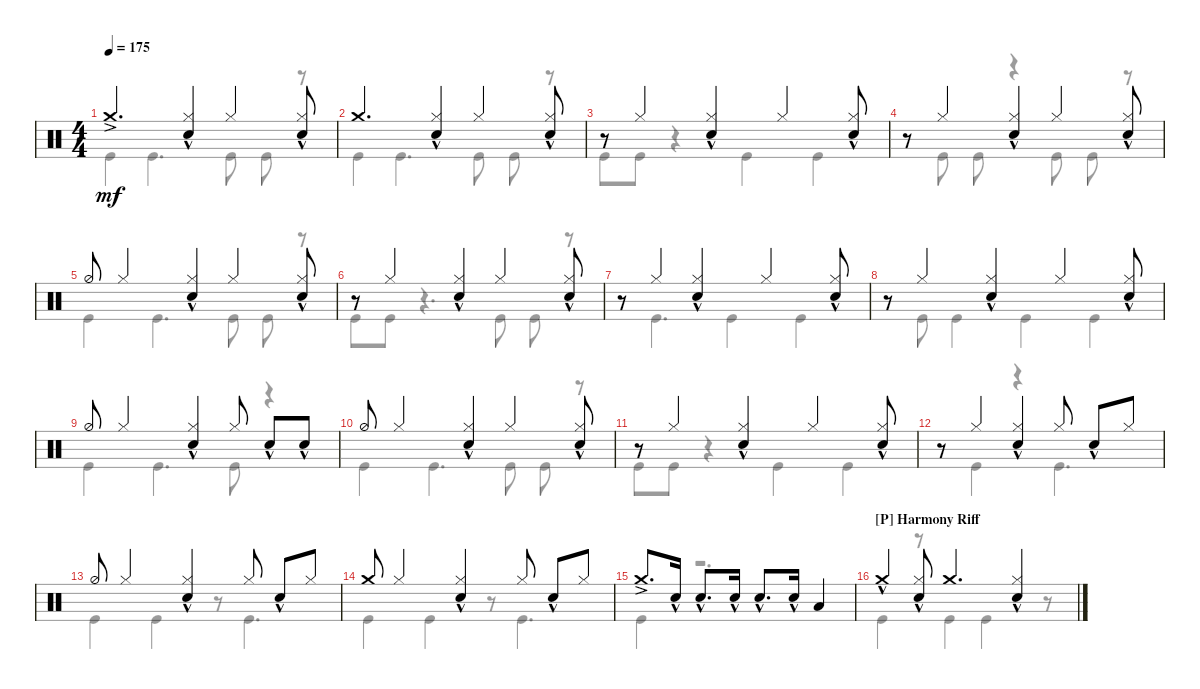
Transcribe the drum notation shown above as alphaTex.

\defaultSystemsLayout 4
\bracketExtendMode groupsimilarinstruments
\singleTrackTrackNamePolicy hidden
\multiTrackTrackNamePolicy hidden
\firstSystemTrackNameOrientation horizontal
\otherSystemsTrackNameOrientation horizontal
\track ("Nicko McBrain" "Drums") {instrument percussion}
\staff {score}
\articulation defaults
\voice
\ts (4 4)
\tempo 175
\clef neutral
\scale
1.02648
\ks c "Crash medium (hit)"{ac}.4{d dy mf}
("Hi-Hat (closed)" "Snare (hit) 2"{hac}).4 "Hi-Hat (closed)".4 ("Hi-Hat (closed)" "Snare (hit) 2"{hac}).8 |
\scale
0.973518 "Crash medium (hit)".4{d} ("Hi-Hat (closed)" "Snare (hit) 2"{hac}).4 "Hi-Hat (closed)".4 ("Hi-Hat (closed)" "Snare (hit) 2"{hac}).8 |
\scale
1.02648 r.8 "Hi-Hat (closed)".4 ("Hi-Hat (closed)" "Snare (hit) 2"{hac}).4 "Hi-Hat (closed)".4 ("Hi-Hat (closed)" "Snare (hit) 2"{hac}).8 |
\scale
0.973518 r.8 "Hi-Hat (closed)".4 ("Hi-Hat (closed)" "Snare (hit) 2"{hac}).4 "Hi-Hat (closed)".4 ("Hi-Hat (closed)" "Snare (hit) 2"{hac}).8 |
\scale
1.02648 "Hi-Hat (half)".8 "Hi-Hat (closed)".4 ("Hi-Hat (closed)" "Snare (hit) 2"{hac}).4 "Hi-Hat (closed)".4 ("Hi-Hat (closed)" "Snare (hit) 2"{hac}).8 |
\scale
0.973518 r.8 "Hi-Hat (closed)".4 ("Hi-Hat (closed)" "Snare (hit) 2"{hac}).4 "Hi-Hat (closed)".4 ("Hi-Hat (closed)" "Snare (hit) 2"{hac}).8 |
\scale
1.02648 r.8 "Hi-Hat (closed)".4 ("Hi-Hat (closed)" "Snare (hit) 2"{hac}).4 "Hi-Hat (closed)".4 ("Hi-Hat (closed)" "Snare (hit) 2"{hac}).8 |
\scale
0.973518 r.8 "Hi-Hat (closed)".4 ("Hi-Hat (closed)" "Snare (hit) 2"{hac}).4 "Hi-Hat (closed)".4 ("Hi-Hat (closed)" "Snare (hit) 2"{hac}).8 |
\scale
1.02648 "Hi-Hat (half)".8 "Hi-Hat (closed)".4 ("Hi-Hat (closed)" "Snare (hit) 2"{hac}).4 "Hi-Hat (closed)".8 "Snare (hit) 2"{hac}.8 "Snare (hit) 2"{hac}.8 |
\scale
0.973518 "Hi-Hat (half)".8 "Hi-Hat (closed)".4 ("Hi-Hat (closed)" "Snare (hit) 2"{hac}).4 "Hi-Hat (closed)".4 ("Hi-Hat (closed)" "Snare (hit) 2"{hac}).8 |
\scale
1.02648 r.8 "Hi-Hat (closed)".4 ("Hi-Hat (closed)" "Snare (hit) 2"{hac}).4 "Hi-Hat (closed)".4 ("Hi-Hat (closed)" "Snare (hit) 2"{hac}).8 |
\scale
0.973518 r.8 "Hi-Hat (closed)".4 ("Hi-Hat (closed)" "Snare (hit) 2"{hac}).4 "Hi-Hat (closed)".8 "Snare (hit) 2"{hac}.8 "Hi-Hat (closed)".8 |
\scale
1.02648 "Hi-Hat (half)".8 "Hi-Hat (closed)".4 ("Hi-Hat (closed)" "Snare (hit) 2"{hac}).4 "Hi-Hat (closed)".8 "Snare (hit) 2"{hac}.8 "Hi-Hat (closed)".8 |
\scale
0.973518 "Crash medium (hit)".8 "Hi-Hat (closed)".4 ("Hi-Hat (closed)" "Snare (hit) 2"{hac}).4 "Hi-Hat (closed)".8 "Snare (hit) 2"{hac}.8 "Hi-Hat (closed)".8 |
\scale
1.02648 "Crash medium (hit)"{ac}.8{d} "Snare (hit) 2"{hac}.16 "Snare (hit) 2"{hac}.8{d} "Snare (hit) 2"{hac}.16 "Snare (hit) 2"{hac}.8{d} "Snare (hit) 2"{hac}.16 "Low Tom (hit)".4 |
\section ("P" "Harmony Riff")
\scale
0.973518 "Crash medium (hit)"{hac}.4 ("Snare (hit) 2"{hac} "Hi-Hat (closed)").8 "Crash medium (hit)".4{d} ("Snare (hit) 2"{hac} "Hi-Hat (closed)").4
\voice
\clef neutral
\ottava regular
\simile none
\scale
1.02648
\ks c "Kick (hit)".4{dy mf} "Kick (hit)".4{d} "Kick (hit)".8 "Kick (hit)".8
r.8 |
\scale
0.973518 "Kick (hit)".4 "Kick (hit)".4{d} "Kick (hit)".8 "Kick (hit)".8 r.8 |
\scale
1.02648 "Kick (hit)".8 "Kick (hit)".8 r.4 "Kick (hit)".4 "Kick (hit)".4 |
\scale
0.973518 r.8 "Kick (hit)".8 "Kick (hit)".8 r.4 "Kick (hit)".8 "Kick (hit)".8 r.8 |
\scale
1.02648 "Kick (hit)".4 "Kick (hit)".4{d} "Kick (hit)".8 "Kick (hit)".8 r.8 |
\scale
0.973518 "Kick (hit)".8 "Kick (hit)".8 r.4{d} "Kick (hit)".8 "Kick (hit)".8 r.8 |
\scale
1.02648 r.8 "Kick (hit)".4{d} "Kick (hit)".4 "Kick (hit)".4 |
\scale
0.973518 r.8 "Kick (hit)".8 "Kick (hit)".4 "Kick (hit)".4 "Kick (hit)".4 |
\scale
1.02648 "Kick (hit)".4 "Kick (hit)".4{d} "Kick (hit)".8 r.4 |
\scale
0.973518 "Kick (hit)".4 "Kick (hit)".4{d} "Kick (hit)".8 "Kick (hit)".8 r.8 |
\scale
1.02648 "Kick (hit)".8 "Kick (hit)".8 r.4 "Kick (hit)".4 "Kick (hit)".4 |
\scale
0.973518 r.8 "Kick (hit)".4 r.4 "Kick (hit)".4{d} |
\scale
1.02648 "Kick (hit)".4 "Kick (hit)".4 r.8 "Kick (hit)".4{d} |
\scale
0.973518 "Kick (hit)".4 "Kick (hit)".4 r.8 "Kick (hit)".4{d} |
\scale
1.02648 "Kick (hit)".4 r.2{d} |
\scale
0.973518 "Kick (hit)".4 r.8 "Kick (hit)".4 "Kick (hit)".4 r.8
